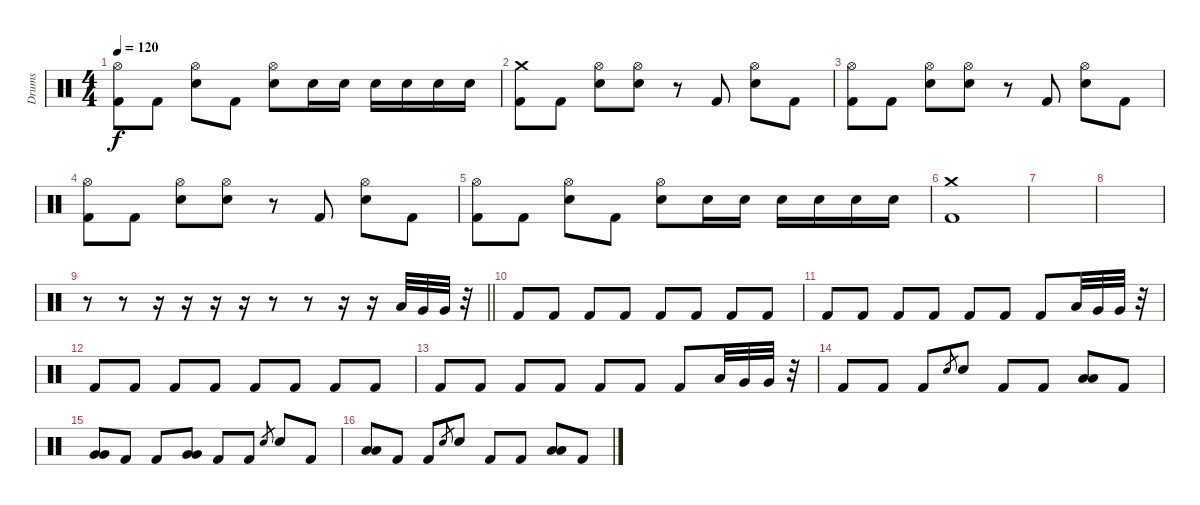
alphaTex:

\track ("Drums" "Drums") {instrument percussion}
\staff {score}
\articulation defaults
\ts (4 4)
\tempo 120
\clef neutral
\ks c
("Hi-Hat (open)" "Kick (hit) 2").8{dy f} "Kick (hit) 2".8 ("Hi-Hat (open)" "Electric Snare (hit)").8 "Kick (hit) 2".8 ("Hi-Hat (open)" "Electric Snare (hit)").8 "Electric Snare (hit)".16 "Electric Snare (hit)".16 "Electric Snare (hit)".16 "Electric Snare (hit)".16 "Electric Snare (hit)".16 "Electric Snare (hit)".16 |
("Crash medium (hit)" "Kick (hit) 2").8 "Kick (hit) 2".8 ("Hi-Hat (open)" "Electric Snare (hit)").8 ("Hi-Hat (open)" "Electric Snare (hit)").8 r.8 "Kick (hit) 2".8 ("Hi-Hat (open)" "Electric Snare (hit)").8 "Kick (hit) 2".8 |
("Hi-Hat (open)" "Kick (hit) 2").8 "Kick (hit) 2".8 ("Hi-Hat (open)" "Electric Snare (hit)").8 ("Hi-Hat (open)" "Electric Snare (hit)").8 r.8 "Kick (hit) 2".8 ("Hi-Hat (open)" "Electric Snare (hit)").8 "Kick (hit) 2".8 |
("Hi-Hat (open)" "Kick (hit) 2").8 "Kick (hit) 2".8 ("Hi-Hat (open)" "Electric Snare (hit)").8 ("Hi-Hat (open)" "Electric Snare (hit)").8 r.8 "Kick (hit) 2".8 ("Hi-Hat (open)" "Electric Snare (hit)").8 "Kick (hit) 2".8 |
("Hi-Hat (open)" "Kick (hit) 2").8 "Kick (hit) 2".8 ("Hi-Hat (open)" "Electric Snare (hit)").8 "Kick (hit) 2".8 ("Hi-Hat (open)" "Electric Snare (hit)").8 "Electric Snare (hit)".16 "Electric Snare (hit)".16 "Electric Snare (hit)".16 "Electric Snare (hit)".16 "Electric Snare (hit)".16 "Electric Snare (hit)".16 |
("Crash medium (hit)" "Kick (hit) 2").1 |
|
|
\barLineRight lightlight
r.8 r.8 r.16 r.16 r.16 r.16 r.8 r.8 r.16 r.16 "Low Tom (hit)".32 "Very Low Tom (hit)".32 "Very Low Tom (hit)".32 r.32 |
"Kick (hit) 2".8 "Kick (hit) 2".8 "Kick (hit) 2".8 "Kick (hit) 2".8 "Kick (hit) 2".8 "Kick (hit) 2".8 "Kick (hit) 2".8 "Kick (hit) 2".8 |
"Kick (hit) 2".8 "Kick (hit) 2".8 "Kick (hit) 2".8 "Kick (hit) 2".8 "Kick (hit) 2".8 "Kick (hit) 2".8 "Kick (hit) 2".8 "Low Tom (hit)".32 "Very Low Tom (hit)".32 "Very Low Tom (hit)".32 r.32 |
"Kick (hit) 2".8{balance 8} "Kick (hit) 2".8 "Kick (hit) 2".8 "Kick (hit) 2".8 "Kick (hit) 2".8 "Kick (hit) 2".8 "Kick (hit) 2".8 "Kick (hit) 2".8 |
"Kick (hit) 2".8 "Kick (hit) 2".8 "Kick (hit) 2".8 "Kick (hit) 2".8 "Kick (hit) 2".8 "Kick (hit) 2".8 "Kick (hit) 2".8 "Low Tom (hit)".32 "Very Low Tom (hit)".32 "Very Low Tom (hit)".32 r.32 |
"Kick (hit) 2".8{balance 8} "Kick (hit) 2".8 "Kick (hit) 2".8 "Electric Snare (hit)".8{gr} "Electric Snare (hit)".8 "Kick (hit) 2".8 "Kick (hit) 2".8 ("Low Tom (hit)" "Low Tom (hit)").8 "Kick (hit) 2".8 |
("Very Low Tom (hit)" "Very Low Tom (hit)").8 "Kick (hit) 2".8 "Kick (hit) 2".8 ("Very Low Tom (hit)" "Very Low Tom (hit)").8 "Kick (hit) 2".8 "Kick (hit) 2".8 "Electric Snare (hit)".8{gr} "Electric Snare (hit)".8 "Kick (hit) 2".8 |
("Low Tom (hit)" "Low Tom (hit)").8 "Kick (hit) 2".8 "Kick (hit) 2".8 "Electric Snare (hit)".8{gr} "Electric Snare (hit)".8 "Kick (hit) 2".8 "Kick (hit) 2".8 ("Low Tom (hit)" "Low Tom (hit)").8 "Kick (hit) 2".8
